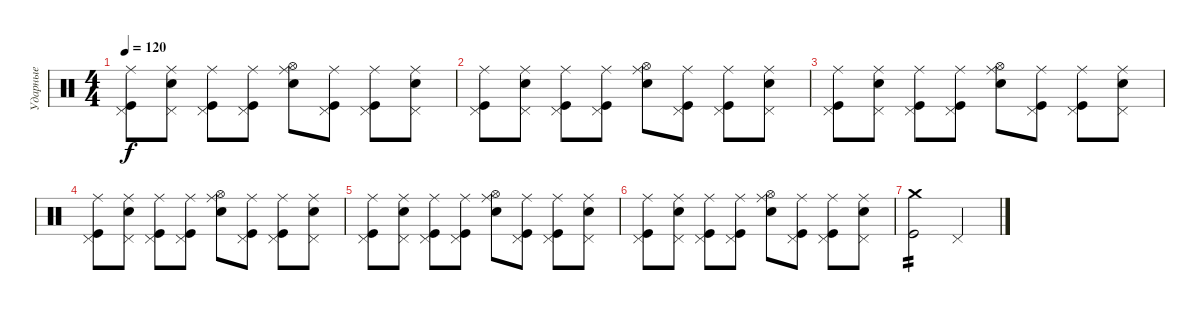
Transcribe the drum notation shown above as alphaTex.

\track ("Ударные" "Ударные") {solo instrument percussion}
\staff {score}
\articulation defaults
\ts (4 4)
\tempo 120
\clef neutral
\ks c
("Ride (middle)" "Pedal Hi-Hat (hit)" "Kick (hit)").8{dy f} ("Ride (middle)" "Pedal Hi-Hat (hit)" "Electric Snare (hit)").8 ("Ride (middle)" "Pedal Hi-Hat (hit)" "Kick (hit)").8 ("Ride (middle)" "Pedal Hi-Hat (hit)" "Kick (hit)").8 ("Ride (middle)" "Hi-Hat (open)" "Electric Snare (hit)").8 ("Ride (middle)" "Pedal Hi-Hat (hit)" "Kick (hit)").8 ("Ride (middle)" "Pedal Hi-Hat (hit)" "Kick (hit)").8 ("Ride (middle)" "Pedal Hi-Hat (hit)" "Electric Snare (hit)").8 |
("Ride (middle)" "Pedal Hi-Hat (hit)" "Kick (hit)").8 ("Ride (middle)" "Pedal Hi-Hat (hit)" "Electric Snare (hit)").8 ("Ride (middle)" "Pedal Hi-Hat (hit)" "Kick (hit)").8 ("Ride (middle)" "Pedal Hi-Hat (hit)" "Kick (hit)").8 ("Ride (middle)" "Hi-Hat (open)" "Electric Snare (hit)").8 ("Ride (middle)" "Pedal Hi-Hat (hit)" "Kick (hit)").8 ("Ride (middle)" "Pedal Hi-Hat (hit)" "Kick (hit)").8 ("Ride (middle)" "Pedal Hi-Hat (hit)" "Electric Snare (hit)").8 |
("Ride (middle)" "Pedal Hi-Hat (hit)" "Kick (hit)").8 ("Ride (middle)" "Pedal Hi-Hat (hit)" "Electric Snare (hit)").8 ("Ride (middle)" "Pedal Hi-Hat (hit)" "Kick (hit)").8 ("Ride (middle)" "Pedal Hi-Hat (hit)" "Kick (hit)").8 ("Ride (middle)" "Hi-Hat (open)" "Electric Snare (hit)").8 ("Ride (middle)" "Pedal Hi-Hat (hit)" "Kick (hit)").8 ("Ride (middle)" "Pedal Hi-Hat (hit)" "Kick (hit)").8 ("Ride (middle)" "Pedal Hi-Hat (hit)" "Electric Snare (hit)").8 |
("Ride (middle)" "Pedal Hi-Hat (hit)" "Kick (hit)").8 ("Ride (middle)" "Pedal Hi-Hat (hit)" "Electric Snare (hit)").8 ("Ride (middle)" "Pedal Hi-Hat (hit)" "Kick (hit)").8 ("Ride (middle)" "Pedal Hi-Hat (hit)" "Kick (hit)").8 ("Ride (middle)" "Hi-Hat (open)" "Electric Snare (hit)").8 ("Ride (middle)" "Pedal Hi-Hat (hit)" "Kick (hit)").8 ("Ride (middle)" "Pedal Hi-Hat (hit)" "Kick (hit)").8 ("Ride (middle)" "Pedal Hi-Hat (hit)" "Electric Snare (hit)").8 |
("Ride (middle)" "Pedal Hi-Hat (hit)" "Kick (hit)").8 ("Ride (middle)" "Pedal Hi-Hat (hit)" "Electric Snare (hit)").8 ("Ride (middle)" "Pedal Hi-Hat (hit)" "Kick (hit)").8 ("Ride (middle)" "Pedal Hi-Hat (hit)" "Kick (hit)").8 ("Ride (middle)" "Hi-Hat (open)" "Electric Snare (hit)").8 ("Ride (middle)" "Pedal Hi-Hat (hit)" "Kick (hit)").8 ("Ride (middle)" "Pedal Hi-Hat (hit)" "Kick (hit)").8 ("Ride (middle)" "Pedal Hi-Hat (hit)" "Electric Snare (hit)").8 |
("Ride (middle)" "Pedal Hi-Hat (hit)" "Kick (hit)").8 ("Ride (middle)" "Pedal Hi-Hat (hit)" "Electric Snare (hit)").8 ("Ride (middle)" "Pedal Hi-Hat (hit)" "Kick (hit)").8 ("Ride (middle)" "Pedal Hi-Hat (hit)" "Kick (hit)").8 ("Ride (middle)" "Hi-Hat (open)" "Electric Snare (hit)").8 ("Ride (middle)" "Pedal Hi-Hat (hit)" "Kick (hit)").8 ("Ride (middle)" "Pedal Hi-Hat (hit)" "Kick (hit)").8 ("Ride (middle)" "Pedal Hi-Hat (hit)" "Electric Snare (hit)").8 |
("Crash medium (hit)" "Kick (hit)").2{tp 2} "Pedal Hi-Hat (hit)".2
